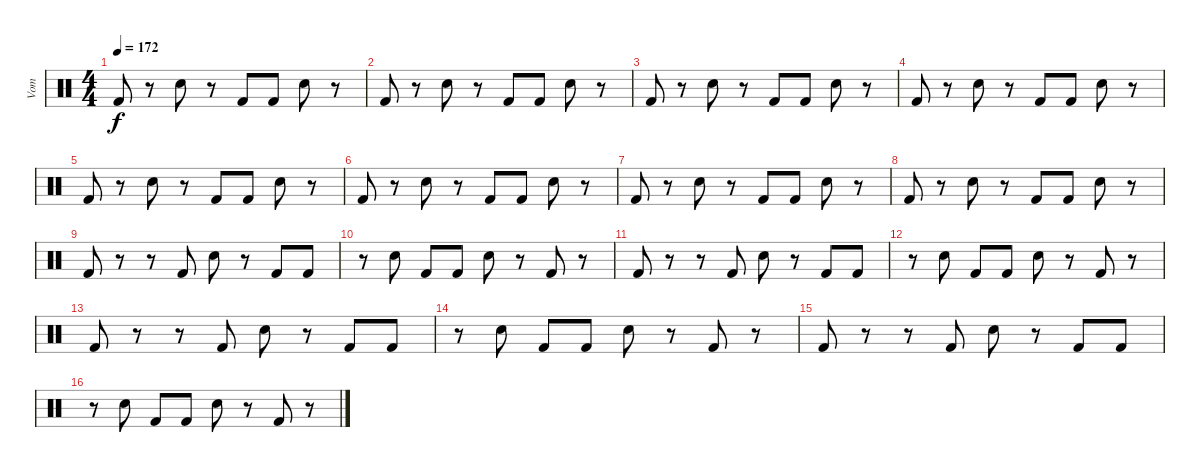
\track ("Vom" "Vom") {instrument percussion}
\staff {score}
\articulation defaults
\ts (4 4)
\tempo 172
\clef neutral
\ks c "Kick (hit) 2".8{dy f}
r.8 "Snare (hit) 2".8 r.8 "Kick (hit) 2".8 "Kick (hit) 2".8 "Snare (hit) 2".8 r.8 |
"Kick (hit) 2".8 r.8 "Snare (hit) 2".8 r.8 "Kick (hit) 2".8 "Kick (hit) 2".8 "Snare (hit) 2".8 r.8 |
"Kick (hit) 2".8 r.8 "Snare (hit) 2".8 r.8 "Kick (hit) 2".8 "Kick (hit) 2".8 "Snare (hit) 2".8 r.8 |
"Kick (hit) 2".8 r.8 "Snare (hit) 2".8 r.8 "Kick (hit) 2".8 "Kick (hit) 2".8 "Snare (hit) 2".8 r.8 |
"Kick (hit) 2".8 r.8 "Snare (hit) 2".8 r.8 "Kick (hit) 2".8 "Kick (hit) 2".8 "Snare (hit) 2".8 r.8 |
"Kick (hit) 2".8 r.8 "Snare (hit) 2".8 r.8 "Kick (hit) 2".8 "Kick (hit) 2".8 "Snare (hit) 2".8 r.8 |
"Kick (hit) 2".8 r.8 "Snare (hit) 2".8 r.8 "Kick (hit) 2".8 "Kick (hit) 2".8 "Snare (hit) 2".8 r.8 |
"Kick (hit) 2".8 r.8 "Snare (hit) 2".8 r.8 "Kick (hit) 2".8 "Kick (hit) 2".8 "Snare (hit) 2".8 r.8 |
"Kick (hit) 2".8 r.8 r.8 "Kick (hit) 2".8 "Snare (hit) 2".8 r.8 "Kick (hit) 2".8 "Kick (hit) 2".8 |
r.8 "Snare (hit) 2".8 "Kick (hit) 2".8 "Kick (hit) 2".8 "Snare (hit) 2".8 r.8 "Kick (hit) 2".8 r.8 |
"Kick (hit) 2".8 r.8 r.8 "Kick (hit) 2".8 "Snare (hit) 2".8 r.8 "Kick (hit) 2".8 "Kick (hit) 2".8 |
r.8 "Snare (hit) 2".8 "Kick (hit) 2".8 "Kick (hit) 2".8 "Snare (hit) 2".8 r.8 "Kick (hit) 2".8 r.8 |
"Kick (hit) 2".8 r.8 r.8 "Kick (hit) 2".8 "Snare (hit) 2".8 r.8 "Kick (hit) 2".8 "Kick (hit) 2".8 |
r.8 "Snare (hit) 2".8 "Kick (hit) 2".8 "Kick (hit) 2".8 "Snare (hit) 2".8 r.8 "Kick (hit) 2".8 r.8 |
"Kick (hit) 2".8 r.8 r.8 "Kick (hit) 2".8 "Snare (hit) 2".8 r.8 "Kick (hit) 2".8 "Kick (hit) 2".8 |
r.8 "Snare (hit) 2".8 "Kick (hit) 2".8 "Kick (hit) 2".8 "Snare (hit) 2".8 r.8 "Kick (hit) 2".8 r.8
